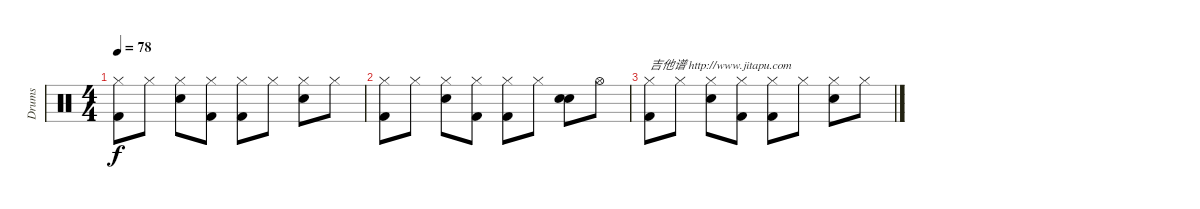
\track ("Drums" "Drums") {instrument percussion}
\staff {score}
\articulation defaults
\ts (4 4)
\tempo 78
\clef neutral
\ks c
("Hi-Hat (closed)" "Kick (hit) 2").8{dy f} "Hi-Hat (closed)".8 ("Hi-Hat (closed)" "Snare (hit) 2").8 ("Hi-Hat (closed)" "Kick (hit) 2").8 ("Hi-Hat (closed)" "Kick (hit) 2").8 "Hi-Hat (closed)".8 ("Hi-Hat (closed)" "Snare (hit) 2").8 "Hi-Hat (closed)".8 |
("Hi-Hat (closed)" "Kick (hit) 2").8 "Hi-Hat (closed)".8 ("Hi-Hat (closed)" "Snare (hit) 2").8 ("Hi-Hat (closed)" "Kick (hit) 2").8 ("Hi-Hat (closed)" "Kick (hit) 2").8 "Hi-Hat (closed)".8 ("Snare (hit)" "Snare (hit) 2").8 "Hi-Hat (open)".8 |
("Hi-Hat (closed)" "Kick (hit) 2").8{txt "吉他谱 http://www.jitapu.com"} "Hi-Hat (closed)".8 ("Hi-Hat (closed)" "Snare (hit) 2").8 ("Hi-Hat (closed)" "Kick (hit) 2").8 ("Hi-Hat (closed)" "Kick (hit) 2").8 "Hi-Hat (closed)".8 ("Hi-Hat (closed)" "Snare (hit) 2").8 "Hi-Hat (closed)".8
